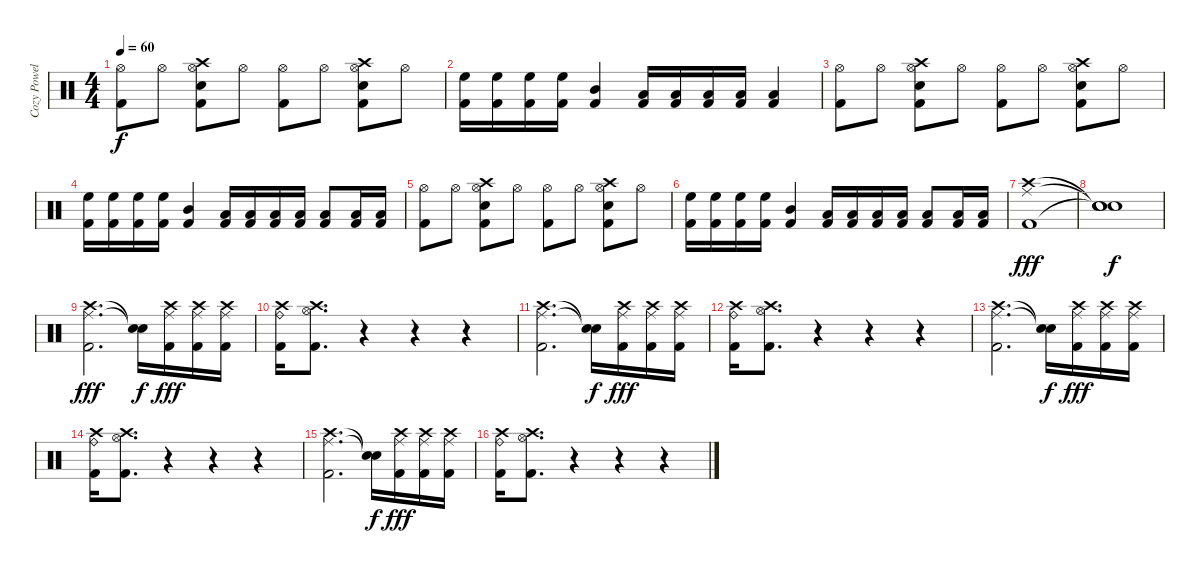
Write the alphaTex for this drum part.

\track ("Cozy Powell (Drums)" "Cozy Powel") {instrument percussion}
\staff {score}
\articulation defaults
\ts (4 4)
\tempo 60
\clef neutral
\ks c
("Hi-Hat (open)" "Kick (hit) 2").8{dy f} "Hi-Hat (open)".8 ("Crash high (hit)" "Hi-Hat (open)" "Snare (hit) 2" "Kick (hit) 2").8 "Hi-Hat (open)".8 ("Hi-Hat (open)" "Kick (hit) 2").8 "Hi-Hat (open)".8 ("Crash high (hit)" "Hi-Hat (open)" "Snare (hit) 2" "Kick (hit) 2").8 "Hi-Hat (open)".8 |
("Kick (hit) 2" "High Floor Tom (hit)").16 ("Kick (hit) 2" "High Floor Tom (hit)").16 ("Kick (hit) 2" "High Floor Tom (hit)").16 ("Kick (hit) 2" "High Floor Tom (hit)").16 ("Kick (hit) 2" "Mid Tom (hit)").4 ("Kick (hit) 2" "Low Tom (hit)").16 ("Kick (hit) 2" "Low Tom (hit)").16 ("Kick (hit) 2" "Low Tom (hit)").16 ("Kick (hit) 2" "Low Tom (hit)").16 ("Kick (hit) 2" "Low Floor Tom (hit)").4 |
("Hi-Hat (open)" "Kick (hit) 2").8 "Hi-Hat (open)".8 ("Crash high (hit)" "Hi-Hat (open)" "Snare (hit) 2" "Kick (hit) 2").8 "Hi-Hat (open)".8 ("Hi-Hat (open)" "Kick (hit) 2").8 "Hi-Hat (open)".8 ("Crash high (hit)" "Hi-Hat (open)" "Snare (hit) 2" "Kick (hit) 2").8 "Hi-Hat (open)".8 |
("Kick (hit) 2" "High Floor Tom (hit)").16 ("Kick (hit) 2" "High Floor Tom (hit)").16 ("Kick (hit) 2" "High Floor Tom (hit)").16 ("Kick (hit) 2" "High Floor Tom (hit)").16 ("Kick (hit) 2" "Mid Tom (hit)").4 ("Kick (hit) 2" "Low Tom (hit)").16 ("Kick (hit) 2" "Low Tom (hit)").16 ("Kick (hit) 2" "Low Tom (hit)").16 ("Kick (hit) 2" "Low Tom (hit)").16 ("Kick (hit) 2" "Low Floor Tom (hit)").8 ("Kick (hit) 2" "Low Tom (hit)").16 ("Kick (hit) 2" "Low Tom (hit)").16 |
("Hi-Hat (open)" "Kick (hit) 2").8 "Hi-Hat (open)".8 ("Crash high (hit)" "Hi-Hat (open)" "Snare (hit) 2" "Kick (hit) 2").8 "Hi-Hat (open)".8 ("Hi-Hat (open)" "Kick (hit) 2").8 "Hi-Hat (open)".8 ("Crash high (hit)" "Hi-Hat (open)" "Snare (hit) 2" "Kick (hit) 2").8 "Hi-Hat (open)".8 |
("Kick (hit) 2" "High Floor Tom (hit)").16 ("Kick (hit) 2" "High Floor Tom (hit)").16 ("Kick (hit) 2" "High Floor Tom (hit)").16 ("Kick (hit) 2" "High Floor Tom (hit)").16 ("Kick (hit) 2" "Mid Tom (hit)").4 ("Kick (hit) 2" "Low Tom (hit)").16 ("Kick (hit) 2" "Low Tom (hit)").16 ("Kick (hit) 2" "Low Tom (hit)").16 ("Kick (hit) 2" "Low Tom (hit)").16 ("Kick (hit) 2" "Low Floor Tom (hit)").8 ("Kick (hit) 2" "Low Tom (hit)").16 ("Kick (hit) 2" "Low Tom (hit)").16 |
("Ride (middle)" "Crash high (hit)" "Kick (hit) 2").1{dy fff} |
("Snare (hit)"{t} "Snare (hit)"{t} "Snare (hit)"{t}).1{dy f} |
("Ride (middle)" "Crash high (hit)" "Kick (hit) 2").2{d dy fff} ("Snare (hit)"{t} "Snare (hit)"{t}).16{dy f} ("Crash high (hit)" "Ride (middle)" "Kick (hit) 2").16{dy fff} ("Crash high (hit)" "Ride (middle)" "Kick (hit) 2").16 ("Crash high (hit)" "Ride (middle)" "Kick (hit) 2").16 |
("Ride (bell)" "Crash high (hit)" "Kick (hit) 2").16 ("Crash high (hit)" "Hi-Hat (open)" "Kick (hit) 2").8{d} r.4 r.4 r.4 |
("Ride (middle)" "Crash high (hit)" "Kick (hit) 2").2{d} ("Snare (hit)"{t} "Snare (hit)"{t}).16{dy f} ("Crash high (hit)" "Ride (middle)" "Kick (hit) 2").16{dy fff} ("Crash high (hit)" "Ride (middle)" "Kick (hit) 2").16 ("Crash high (hit)" "Ride (middle)" "Kick (hit) 2").16 |
("Ride (bell)" "Crash high (hit)" "Kick (hit) 2").16 ("Crash high (hit)" "Hi-Hat (open)" "Kick (hit) 2").8{d} r.4 r.4 r.4 |
("Ride (middle)" "Crash high (hit)" "Kick (hit) 2").2{d} ("Snare (hit)"{t} "Snare (hit)"{t}).16{dy f} ("Crash high (hit)" "Ride (middle)" "Kick (hit) 2").16{dy fff} ("Crash high (hit)" "Ride (middle)" "Kick (hit) 2").16 ("Crash high (hit)" "Ride (middle)" "Kick (hit) 2").16 |
("Ride (bell)" "Crash high (hit)" "Kick (hit) 2").16 ("Crash high (hit)" "Hi-Hat (open)" "Kick (hit) 2").8{d} r.4 r.4 r.4 |
("Ride (middle)" "Crash high (hit)" "Kick (hit) 2").2{d} ("Snare (hit)"{t} "Snare (hit)"{t}).16{dy f} ("Crash high (hit)" "Ride (middle)" "Kick (hit) 2").16{dy fff} ("Crash high (hit)" "Ride (middle)" "Kick (hit) 2").16 ("Crash high (hit)" "Ride (middle)" "Kick (hit) 2").16 |
("Ride (bell)" "Crash high (hit)" "Kick (hit) 2").16 ("Crash high (hit)" "Hi-Hat (open)" "Kick (hit) 2").8{d} r.4 r.4 r.4
